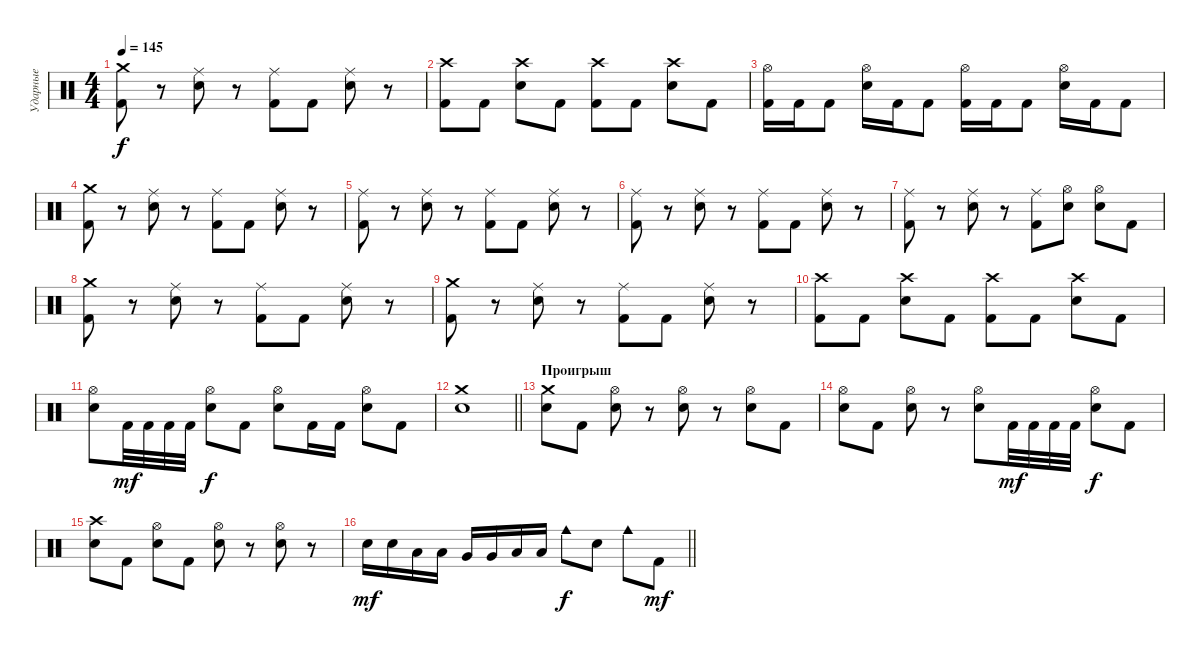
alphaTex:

\track ("Ударные" "Ударные") {instrument percussion bank 127}
\staff
\articulation defaults
\ts (4 4)
\tempo 145
\clef neutral
\ks c
("Crash medium (hit)" "Kick (hit) 2").8{dy f} r.8 ("Ride (middle)" "Snare (hit) 2").8 r.8 ("Ride (middle)" "Kick (hit) 2").8 "Kick (hit) 2".8 ("Ride (middle)" "Snare (hit) 2").8 r.8 |
("Kick (hit) 2" "Crash high (hit)").8 "Kick (hit) 2".8 ("Snare (hit) 2" "Crash high (hit)").8 "Kick (hit) 2".8 ("Kick (hit) 2" "Crash high (hit)").8 "Kick (hit) 2".8 ("Snare (hit) 2" "Crash high (hit)").8 "Kick (hit) 2".8 |
("Kick (hit) 2" "Hi-Hat (open)").16 "Kick (hit) 2".16 "Kick (hit) 2".8 ("Snare (hit) 2" "Hi-Hat (open)").16 "Kick (hit) 2".16 "Kick (hit) 2".8 ("Kick (hit) 2" "Hi-Hat (open)").16 "Kick (hit) 2".16 "Kick (hit) 2".8 ("Snare (hit) 2" "Hi-Hat (open)").16 "Kick (hit) 2".16 "Kick (hit) 2".8 |
("Crash medium (hit)" "Kick (hit) 2").8 r.8 ("Ride (middle)" "Snare (hit) 2").8 r.8 ("Ride (middle)" "Kick (hit) 2").8 "Kick (hit) 2".8 ("Ride (middle)" "Snare (hit) 2").8 r.8 |
("Ride (middle)" "Kick (hit) 2").8 r.8 ("Ride (middle)" "Snare (hit) 2").8 r.8 ("Ride (middle)" "Kick (hit) 2").8 "Kick (hit) 2".8 ("Ride (middle)" "Snare (hit) 2").8 r.8 |
("Ride (middle)" "Kick (hit) 2").8 r.8 ("Ride (middle)" "Snare (hit) 2").8 r.8 ("Ride (middle)" "Kick (hit) 2").8 "Kick (hit) 2".8 ("Ride (middle)" "Snare (hit) 2").8 r.8 |
("Ride (middle)" "Kick (hit) 2").8 r.8 ("Ride (middle)" "Snare (hit) 2").8 r.8 ("Ride (middle)" "Kick (hit) 2").8 ("Hi-Hat (open)" "Snare (hit) 2").8 ("Hi-Hat (open)" "Snare (hit) 2").8 "Kick (hit) 2".8 |
("Crash medium (hit)" "Kick (hit) 2").8 r.8 ("Ride (middle)" "Snare (hit) 2").8 r.8 ("Ride (middle)" "Kick (hit) 2").8 "Kick (hit) 2".8 ("Ride (middle)" "Snare (hit) 2").8 r.8 |
("Crash medium (hit)" "Kick (hit) 2").8 r.8 ("Ride (middle)" "Snare (hit) 2").8 r.8 ("Ride (middle)" "Kick (hit) 2").8 "Kick (hit) 2".8 ("Ride (middle)" "Snare (hit) 2").8 r.8 |
("Kick (hit) 2" "Crash high (hit)").8 "Kick (hit) 2".8 ("Snare (hit) 2" "Crash high (hit)").8 "Kick (hit) 2".8 ("Kick (hit) 2" "Crash high (hit)").8 "Kick (hit) 2".8 ("Snare (hit) 2" "Crash high (hit)").8 "Kick (hit) 2".8 |
("Snare (hit) 2" "Hi-Hat (open)").8 "Kick (hit) 2".32{dy mf} "Kick (hit) 2".32 "Kick (hit) 2".32 "Kick (hit) 2".32 ("Snare (hit) 2" "Hi-Hat (open)").8{dy f} "Kick (hit) 2".8 ("Snare (hit) 2" "Hi-Hat (open)").8 "Kick (hit) 2".16 "Kick (hit) 2".16 ("Snare (hit) 2" "Hi-Hat (open)").8 "Kick (hit) 2".8 |
\barLineRight lightlight
("Snare (hit) 2" "Crash medium (hit)").1 |
\section ("" "Проигрыш")
("Snare (hit) 2" "Crash medium (hit)").8 "Kick (hit) 2".8 ("Snare (hit) 2" "Hi-Hat (open)").8 r.8 ("Snare (hit) 2" "Hi-Hat (open)").8 r.8 ("Snare (hit) 2" "Hi-Hat (open)").8 "Kick (hit) 2".8 |
("Snare (hit) 2" "Hi-Hat (open)").8 "Kick (hit) 2".8 ("Snare (hit) 2" "Hi-Hat (open)").8 r.8 ("Snare (hit) 2" "Hi-Hat (open)").8 "Kick (hit) 2".32{dy mf} "Kick (hit) 2".32 "Kick (hit) 2".32 "Kick (hit) 2".32 ("Snare (hit) 2" "Hi-Hat (open)").8{dy f} "Kick (hit) 2".8 |
("Snare (hit) 2" "Crash high (hit)").8 "Kick (hit) 2".8 ("Snare (hit) 2" "Hi-Hat (open)").8 "Kick (hit) 2".8 ("Snare (hit) 2" "Hi-Hat (open)").8 r.8 ("Snare (hit) 2" "Hi-Hat (open)").8 r.8 |
\barLineRight lightlight "Snare (hit) 2".16{dy mf} "Snare (hit) 2".16 "Low Tom (hit)".16 "Low Tom (hit)".16 "Very Low Tom (hit)".16 "Very Low Tom (hit)".16 "Low Floor Tom (hit)".16 "Low Floor Tom (hit)".16 "Cowbell medium (hit)".8{dy f} "Snare (hit) 2".8 "Cowbell medium (hit)".8 "Kick (hit) 2".8{dy mf}
